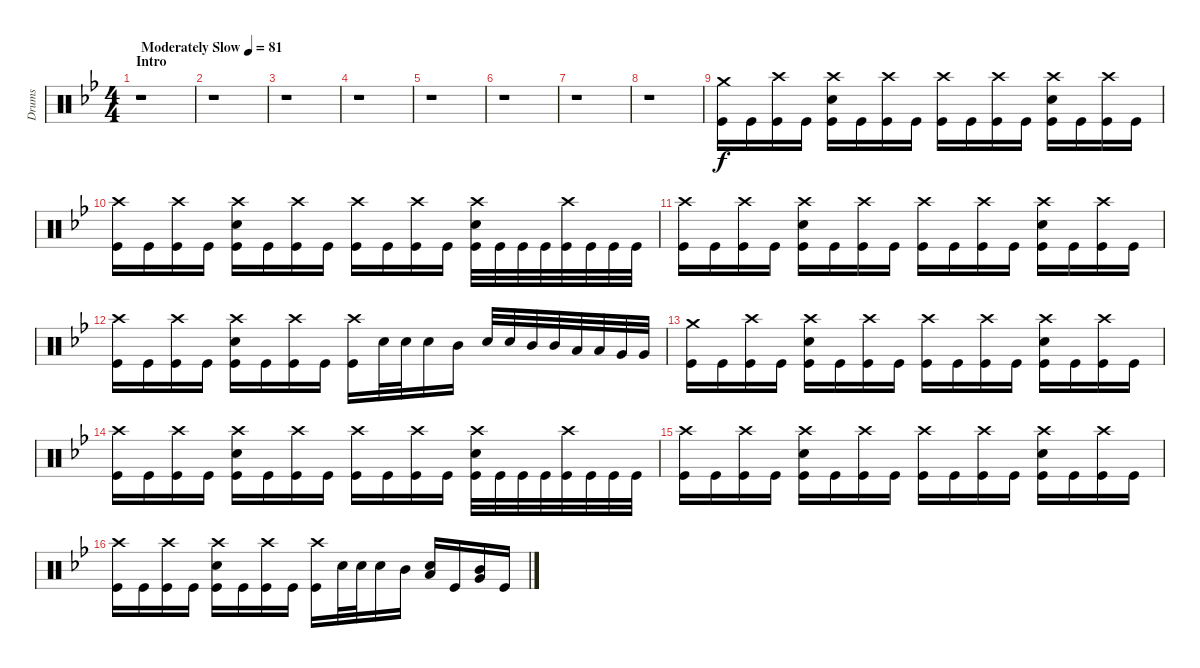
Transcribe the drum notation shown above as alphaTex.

\track ("Drums" "Drums") {instrument percussion}
\staff {score}
\articulation defaults
\ts (4 4)
\section ("" "Intro")
\tempo (81 "Moderately Slow")
\clef neutral
\ks gminor
r.1{dy f} |
r.1 |
r.1 |
r.1 |
r.1 |
r.1 |
r.1 |
r.1 |
("Crash medium (hit)" "Kick (hit)").16 "Kick (hit)".16 ("Crash high (hit)" "Kick (hit)").16 "Kick (hit)".16 ("Crash high (hit)" "Electric Snare (hit)" "Kick (hit)").16 "Kick (hit)".16 ("Crash high (hit)" "Kick (hit)").16 "Kick (hit)".16 ("Crash high (hit)" "Kick (hit)").16 "Kick (hit)".16 ("Crash high (hit)" "Kick (hit)").16 "Kick (hit)".16 ("Crash high (hit)" "Electric Snare (hit)" "Kick (hit)").16 "Kick (hit)".16 ("Crash high (hit)" "Kick (hit)").16 "Kick (hit)".16 |
("Crash high (hit)" "Kick (hit)").16 "Kick (hit)".16 ("Crash high (hit)" "Kick (hit)").16 "Kick (hit)".16 ("Crash high (hit)" "Electric Snare (hit)" "Kick (hit)").16 "Kick (hit)".16 ("Crash high (hit)" "Kick (hit)").16 "Kick (hit)".16 ("Crash high (hit)" "Kick (hit)").16 "Kick (hit)".16 ("Crash high (hit)" "Kick (hit)").16 "Kick (hit)".16 ("Crash high (hit)" "Electric Snare (hit)" "Kick (hit)").32 "Kick (hit)".32 "Kick (hit)".32 "Kick (hit)".32 ("Crash high (hit)" "Kick (hit)").32 "Kick (hit)".32 "Kick (hit)".32 "Kick (hit)".32 |
("Crash high (hit)" "Kick (hit)").16 "Kick (hit)".16 ("Crash high (hit)" "Kick (hit)").16 "Kick (hit)".16 ("Crash high (hit)" "Electric Snare (hit)" "Kick (hit)").16 "Kick (hit)".16 ("Crash high (hit)" "Kick (hit)").16 "Kick (hit)".16 ("Crash high (hit)" "Kick (hit)").16 "Kick (hit)".16 ("Crash high (hit)" "Kick (hit)").16 "Kick (hit)".16 ("Crash high (hit)" "Electric Snare (hit)" "Kick (hit)").16 "Kick (hit)".16 ("Crash high (hit)" "Kick (hit)").16 "Kick (hit)".16 |
("Crash high (hit)" "Kick (hit)").16 "Kick (hit)".16 ("Crash high (hit)" "Kick (hit)").16 "Kick (hit)".16 ("Crash high (hit)" "Electric Snare (hit)" "Kick (hit)").16 "Kick (hit)".16 ("Crash high (hit)" "Kick (hit)").16 "Kick (hit)".16 ("Crash high (hit)" "Kick (hit)").16 "Electric Snare (hit)".32 "Electric Snare (hit)".32 "Electric Snare (hit)".16 "Mid Tom (hit)".16 "Electric Snare (hit)".32 "Electric Snare (hit)".32 "Mid Tom (hit)".32 "Mid Tom (hit)".32 "Low Tom (hit)".32 "Low Tom (hit)".32 "Very Low Tom (hit)".32 "Very Low Tom (hit)".32 |
("Crash medium (hit)" "Kick (hit)").16 "Kick (hit)".16 ("Crash high (hit)" "Kick (hit)").16 "Kick (hit)".16 ("Crash high (hit)" "Electric Snare (hit)" "Kick (hit)").16 "Kick (hit)".16 ("Crash high (hit)" "Kick (hit)").16 "Kick (hit)".16 ("Crash high (hit)" "Kick (hit)").16 "Kick (hit)".16 ("Crash high (hit)" "Kick (hit)").16 "Kick (hit)".16 ("Crash high (hit)" "Electric Snare (hit)" "Kick (hit)").16 "Kick (hit)".16 ("Crash high (hit)" "Kick (hit)").16 "Kick (hit)".16 |
("Crash high (hit)" "Kick (hit)").16 "Kick (hit)".16 ("Crash high (hit)" "Kick (hit)").16 "Kick (hit)".16 ("Crash high (hit)" "Electric Snare (hit)" "Kick (hit)").16 "Kick (hit)".16 ("Crash high (hit)" "Kick (hit)").16 "Kick (hit)".16 ("Crash high (hit)" "Kick (hit)").16 "Kick (hit)".16 ("Crash high (hit)" "Kick (hit)").16 "Kick (hit)".16 ("Crash high (hit)" "Electric Snare (hit)" "Kick (hit)").32 "Kick (hit)".32 "Kick (hit)".32 "Kick (hit)".32 ("Crash high (hit)" "Kick (hit)").32 "Kick (hit)".32 "Kick (hit)".32 "Kick (hit)".32 |
("Crash high (hit)" "Kick (hit)").16 "Kick (hit)".16 ("Crash high (hit)" "Kick (hit)").16 "Kick (hit)".16 ("Crash high (hit)" "Electric Snare (hit)" "Kick (hit)").16 "Kick (hit)".16 ("Crash high (hit)" "Kick (hit)").16 "Kick (hit)".16 ("Crash high (hit)" "Kick (hit)").16 "Kick (hit)".16 ("Crash high (hit)" "Kick (hit)").16 "Kick (hit)".16 ("Crash high (hit)" "Electric Snare (hit)" "Kick (hit)").16 "Kick (hit)".16 ("Crash high (hit)" "Kick (hit)").16 "Kick (hit)".16 |
("Crash high (hit)" "Kick (hit)").16 "Kick (hit)".16 ("Crash high (hit)" "Kick (hit)").16 "Kick (hit)".16 ("Crash high (hit)" "Electric Snare (hit)" "Kick (hit)").16 "Kick (hit)".16 ("Crash high (hit)" "Kick (hit)").16 "Kick (hit)".16 ("Crash high (hit)" "Kick (hit)").16 "Electric Snare (hit)".32 "Electric Snare (hit)".32 "Electric Snare (hit)".16 "Mid Tom (hit)".16 ("Low Tom (hit)" "Electric Snare (hit)").16 "Kick (hit)".16 ("Mid Tom (hit)" "Very Low Tom (hit)").16 "Kick (hit)".16
